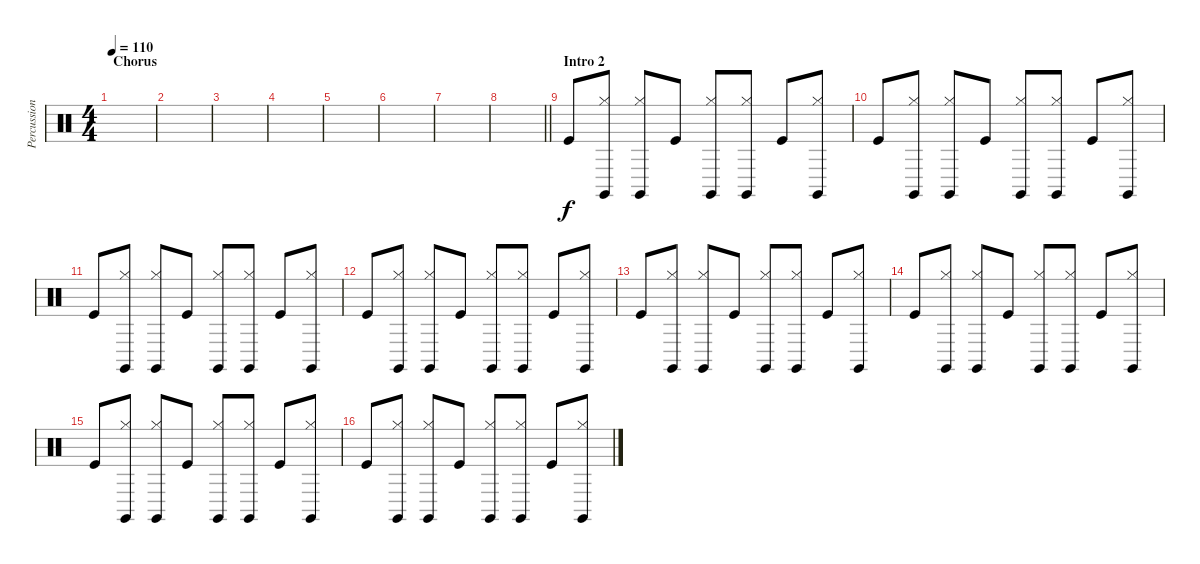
\track ("Percussion" "Percussion") {instrument percussion}
\staff {score}
\articulation defaults
\ts (4 4)
\section ("" "Chorus")
\tempo 110
\clef neutral
\ks c
|
|
|
|
|
|
|
\barLineRight lightlight
|
\section ("" "Intro 2")
"Kick (hit)".8 ("Claves (hit)" "Hi-Hat (closed)").8 ("Claves (hit)" "Hi-Hat (closed)").8 "Kick (hit)".8 ("Claves (hit)" "Hi-Hat (closed)").8 ("Claves (hit)" "Hi-Hat (closed)").8 "Kick (hit)".8 ("Claves (hit)" "Hi-Hat (closed)").8 |
"Kick (hit)".8 ("Claves (hit)" "Hi-Hat (closed)").8 ("Claves (hit)" "Hi-Hat (closed)").8 "Kick (hit)".8 ("Claves (hit)" "Hi-Hat (closed)").8 ("Claves (hit)" "Hi-Hat (closed)").8 "Kick (hit)".8 ("Claves (hit)" "Hi-Hat (closed)").8 |
"Kick (hit)".8 ("Claves (hit)" "Hi-Hat (closed)").8 ("Claves (hit)" "Hi-Hat (closed)").8 "Kick (hit)".8 ("Claves (hit)" "Hi-Hat (closed)").8 ("Claves (hit)" "Hi-Hat (closed)").8 "Kick (hit)".8 ("Claves (hit)" "Hi-Hat (closed)").8 |
"Kick (hit)".8 ("Claves (hit)" "Hi-Hat (closed)").8 ("Claves (hit)" "Hi-Hat (closed)").8 "Kick (hit)".8 ("Claves (hit)" "Hi-Hat (closed)").8 ("Claves (hit)" "Hi-Hat (closed)").8 "Kick (hit)".8 ("Claves (hit)" "Hi-Hat (closed)").8 |
"Kick (hit)".8 ("Claves (hit)" "Hi-Hat (closed)").8 ("Claves (hit)" "Hi-Hat (closed)").8 "Kick (hit)".8 ("Claves (hit)" "Hi-Hat (closed)").8 ("Claves (hit)" "Hi-Hat (closed)").8 "Kick (hit)".8 ("Claves (hit)" "Hi-Hat (closed)").8 |
"Kick (hit)".8 ("Claves (hit)" "Hi-Hat (closed)").8 ("Claves (hit)" "Hi-Hat (closed)").8 "Kick (hit)".8 ("Claves (hit)" "Hi-Hat (closed)").8 ("Claves (hit)" "Hi-Hat (closed)").8 "Kick (hit)".8 ("Claves (hit)" "Hi-Hat (closed)").8 |
"Kick (hit)".8 ("Claves (hit)" "Hi-Hat (closed)").8 ("Claves (hit)" "Hi-Hat (closed)").8 "Kick (hit)".8 ("Claves (hit)" "Hi-Hat (closed)").8 ("Claves (hit)" "Hi-Hat (closed)").8 "Kick (hit)".8 ("Claves (hit)" "Hi-Hat (closed)").8 |
"Kick (hit)".8 ("Claves (hit)" "Hi-Hat (closed)").8 ("Claves (hit)" "Hi-Hat (closed)").8 "Kick (hit)".8 ("Claves (hit)" "Hi-Hat (closed)").8 ("Claves (hit)" "Hi-Hat (closed)").8 "Kick (hit)".8 ("Claves (hit)" "Hi-Hat (closed)").8
